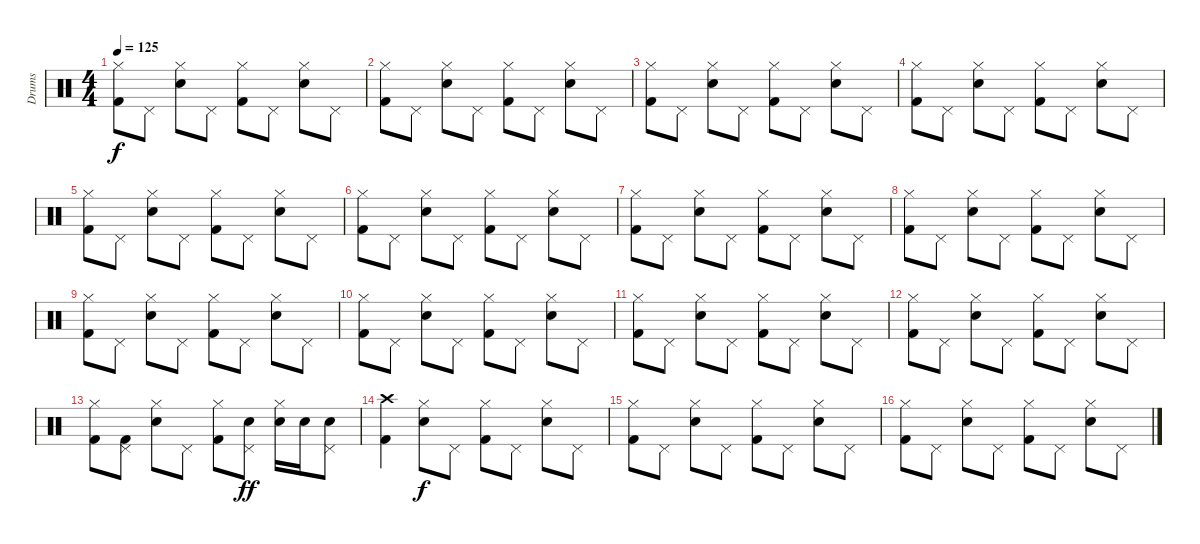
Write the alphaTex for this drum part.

\track ("Drums" "Drums") {instrument percussion}
\staff {score}
\articulation defaults
\ts (4 4)
\tempo 125
\clef neutral
\ks c
("Hi-Hat (closed)" "Kick (hit) 2").8{dy f} "Pedal Hi-Hat (hit)".8 ("Hi-Hat (closed)" "Electric Snare (hit)").8 "Pedal Hi-Hat (hit)".8 ("Hi-Hat (closed)" "Kick (hit) 2").8 "Pedal Hi-Hat (hit)".8 ("Hi-Hat (closed)" "Electric Snare (hit)").8 "Pedal Hi-Hat (hit)".8 |
("Hi-Hat (closed)" "Kick (hit) 2").8 "Pedal Hi-Hat (hit)".8 ("Hi-Hat (closed)" "Electric Snare (hit)").8 "Pedal Hi-Hat (hit)".8 ("Hi-Hat (closed)" "Kick (hit) 2").8 "Pedal Hi-Hat (hit)".8 ("Hi-Hat (closed)" "Electric Snare (hit)").8 "Pedal Hi-Hat (hit)".8 |
("Hi-Hat (closed)" "Kick (hit) 2").8 "Pedal Hi-Hat (hit)".8 ("Hi-Hat (closed)" "Electric Snare (hit)").8 "Pedal Hi-Hat (hit)".8 ("Hi-Hat (closed)" "Kick (hit) 2").8 "Pedal Hi-Hat (hit)".8 ("Hi-Hat (closed)" "Electric Snare (hit)").8 "Pedal Hi-Hat (hit)".8 |
("Hi-Hat (closed)" "Kick (hit) 2").8 "Pedal Hi-Hat (hit)".8 ("Hi-Hat (closed)" "Electric Snare (hit)").8 "Pedal Hi-Hat (hit)".8 ("Hi-Hat (closed)" "Kick (hit) 2").8 "Pedal Hi-Hat (hit)".8 ("Hi-Hat (closed)" "Electric Snare (hit)").8 "Pedal Hi-Hat (hit)".8 |
("Hi-Hat (closed)" "Kick (hit) 2").8 "Pedal Hi-Hat (hit)".8 ("Hi-Hat (closed)" "Electric Snare (hit)").8 "Pedal Hi-Hat (hit)".8 ("Hi-Hat (closed)" "Kick (hit) 2").8 "Pedal Hi-Hat (hit)".8 ("Hi-Hat (closed)" "Electric Snare (hit)").8 "Pedal Hi-Hat (hit)".8 |
("Hi-Hat (closed)" "Kick (hit) 2").8 "Pedal Hi-Hat (hit)".8 ("Hi-Hat (closed)" "Electric Snare (hit)").8 "Pedal Hi-Hat (hit)".8 ("Hi-Hat (closed)" "Kick (hit) 2").8 "Pedal Hi-Hat (hit)".8 ("Hi-Hat (closed)" "Electric Snare (hit)").8 "Pedal Hi-Hat (hit)".8 |
("Hi-Hat (closed)" "Kick (hit) 2").8 "Pedal Hi-Hat (hit)".8 ("Hi-Hat (closed)" "Electric Snare (hit)").8 "Pedal Hi-Hat (hit)".8 ("Hi-Hat (closed)" "Kick (hit) 2").8 "Pedal Hi-Hat (hit)".8 ("Hi-Hat (closed)" "Electric Snare (hit)").8 "Pedal Hi-Hat (hit)".8 |
("Hi-Hat (closed)" "Kick (hit) 2").8 "Pedal Hi-Hat (hit)".8 ("Hi-Hat (closed)" "Electric Snare (hit)").8 "Pedal Hi-Hat (hit)".8 ("Hi-Hat (closed)" "Kick (hit) 2").8 "Pedal Hi-Hat (hit)".8 ("Hi-Hat (closed)" "Electric Snare (hit)").8 "Pedal Hi-Hat (hit)".8 |
("Hi-Hat (closed)" "Kick (hit) 2").8 "Pedal Hi-Hat (hit)".8 ("Hi-Hat (closed)" "Electric Snare (hit)").8 "Pedal Hi-Hat (hit)".8 ("Hi-Hat (closed)" "Kick (hit) 2").8 "Pedal Hi-Hat (hit)".8 ("Hi-Hat (closed)" "Electric Snare (hit)").8 "Pedal Hi-Hat (hit)".8 |
("Hi-Hat (closed)" "Kick (hit) 2").8 "Pedal Hi-Hat (hit)".8 ("Hi-Hat (closed)" "Electric Snare (hit)").8 "Pedal Hi-Hat (hit)".8 ("Hi-Hat (closed)" "Kick (hit) 2").8 "Pedal Hi-Hat (hit)".8 ("Hi-Hat (closed)" "Electric Snare (hit)").8 "Pedal Hi-Hat (hit)".8 |
("Hi-Hat (closed)" "Kick (hit) 2").8 "Pedal Hi-Hat (hit)".8 ("Hi-Hat (closed)" "Electric Snare (hit)").8 "Pedal Hi-Hat (hit)".8 ("Hi-Hat (closed)" "Kick (hit) 2").8 "Pedal Hi-Hat (hit)".8 ("Hi-Hat (closed)" "Electric Snare (hit)").8 "Pedal Hi-Hat (hit)".8 |
("Hi-Hat (closed)" "Kick (hit) 2").8 "Pedal Hi-Hat (hit)".8 ("Hi-Hat (closed)" "Electric Snare (hit)").8 "Pedal Hi-Hat (hit)".8 ("Hi-Hat (closed)" "Kick (hit) 2").8 "Pedal Hi-Hat (hit)".8 ("Hi-Hat (closed)" "Electric Snare (hit)").8 "Pedal Hi-Hat (hit)".8 |
("Hi-Hat (closed)" "Kick (hit) 2").8 ("Pedal Hi-Hat (hit)" "Kick (hit) 2").8 ("Hi-Hat (closed)" "Electric Snare (hit)").8 "Pedal Hi-Hat (hit)".8 ("Hi-Hat (closed)" "Kick (hit) 2").8 ("Pedal Hi-Hat (hit)" "Snare (hit) 2").8{dy ff} ("Hi-Hat (closed)" "Snare (hit) 2").16 "Snare (hit) 2".16 ("Pedal Hi-Hat (hit)" "Snare (hit) 2").8 |
("Crash high (hit)" "Kick (hit) 2").4 ("Hi-Hat (closed)" "Electric Snare (hit)").8{dy f} "Pedal Hi-Hat (hit)".8 ("Hi-Hat (closed)" "Kick (hit) 2").8 "Pedal Hi-Hat (hit)".8 ("Hi-Hat (closed)" "Electric Snare (hit)").8 "Pedal Hi-Hat (hit)".8 |
("Hi-Hat (closed)" "Kick (hit) 2").8 "Pedal Hi-Hat (hit)".8 ("Hi-Hat (closed)" "Electric Snare (hit)").8 "Pedal Hi-Hat (hit)".8 ("Hi-Hat (closed)" "Kick (hit) 2").8 "Pedal Hi-Hat (hit)".8 ("Hi-Hat (closed)" "Electric Snare (hit)").8 "Pedal Hi-Hat (hit)".8 |
("Hi-Hat (closed)" "Kick (hit) 2").8 "Pedal Hi-Hat (hit)".8 ("Hi-Hat (closed)" "Electric Snare (hit)").8 "Pedal Hi-Hat (hit)".8 ("Hi-Hat (closed)" "Kick (hit) 2").8 "Pedal Hi-Hat (hit)".8 ("Hi-Hat (closed)" "Electric Snare (hit)").8 "Pedal Hi-Hat (hit)".8
